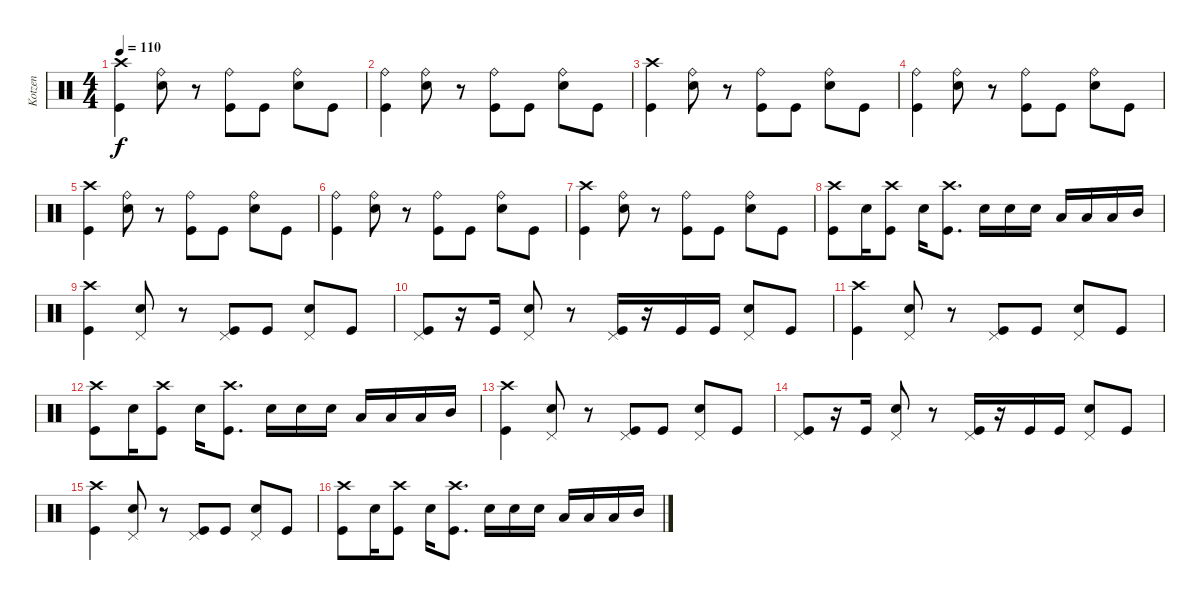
\track ("Kotzen" "Kotzen") {instrument percussion}
\staff {score}
\articulation defaults
\ts (4 4)
\tempo 110
\clef neutral
\ks c
("Crash high (hit)" "Kick (hit)").4{dy f} ("Ride (bell)" "Snare (hit) 2").8 r.8 ("Ride (bell)" "Kick (hit)").8 "Kick (hit)".8 ("Ride (bell)" "Snare (hit) 2").8 "Kick (hit)".8 |
("Ride (bell)" "Kick (hit)").4 ("Ride (bell)" "Snare (hit) 2").8 r.8 ("Ride (bell)" "Kick (hit)").8 "Kick (hit)".8 ("Ride (bell)" "Snare (hit) 2").8 "Kick (hit)".8 |
("Crash high (hit)" "Kick (hit)").4 ("Ride (bell)" "Snare (hit) 2").8 r.8 ("Ride (bell)" "Kick (hit)").8 "Kick (hit)".8 ("Ride (bell)" "Snare (hit) 2").8 "Kick (hit)".8 |
("Ride (bell)" "Kick (hit)").4 ("Ride (bell)" "Snare (hit) 2").8 r.8 ("Ride (bell)" "Kick (hit)").8 "Kick (hit)".8 ("Ride (bell)" "Snare (hit) 2").8 "Kick (hit)".8 |
("Crash high (hit)" "Kick (hit)").4 ("Ride (bell)" "Snare (hit) 2").8 r.8 ("Ride (bell)" "Kick (hit)").8 "Kick (hit)".8 ("Ride (bell)" "Snare (hit) 2").8 "Kick (hit)".8 |
("Ride (bell)" "Kick (hit)").4 ("Ride (bell)" "Snare (hit) 2").8 r.8 ("Ride (bell)" "Kick (hit)").8 "Kick (hit)".8 ("Ride (bell)" "Snare (hit) 2").8 "Kick (hit)".8 |
("Crash high (hit)" "Kick (hit)").4 ("Ride (bell)" "Snare (hit) 2").8 r.8 ("Ride (bell)" "Kick (hit)").8 "Kick (hit)".8 ("Ride (bell)" "Snare (hit) 2").8 "Kick (hit)".8 |
("Crash high (hit)" "Kick (hit)").8 "Snare (hit) 2".16 ("Crash high (hit)" "Kick (hit)").8 "Snare (hit) 2".16 ("Crash high (hit)" "Kick (hit)").8{d} "Snare (hit) 2".16 "Snare (hit) 2".16 "Snare (hit) 2".16 "Low Tom (hit)".16 "Low Tom (hit)".16 "Low Tom (hit)".16 "Mid Tom (hit)".16 |
("Crash high (hit)" "Kick (hit)").4 ("Pedal Hi-Hat (hit)" "Snare (hit) 2").8 r.8 ("Pedal Hi-Hat (hit)" "Kick (hit)").8 "Kick (hit)".8 ("Pedal Hi-Hat (hit)" "Snare (hit) 2").8 "Kick (hit)".8 |
("Pedal Hi-Hat (hit)" "Kick (hit)").8 r.16 "Kick (hit)".16 ("Pedal Hi-Hat (hit)" "Snare (hit) 2").8 r.8 ("Pedal Hi-Hat (hit)" "Kick (hit)").16 r.16 "Kick (hit)".16 "Kick (hit)".16 ("Pedal Hi-Hat (hit)" "Snare (hit) 2").8 "Kick (hit)".8 |
("Crash high (hit)" "Kick (hit)").4 ("Pedal Hi-Hat (hit)" "Snare (hit) 2").8 r.8 ("Pedal Hi-Hat (hit)" "Kick (hit)").8 "Kick (hit)".8 ("Pedal Hi-Hat (hit)" "Snare (hit) 2").8 "Kick (hit)".8 |
("Crash high (hit)" "Kick (hit)").8 "Snare (hit) 2".16 ("Crash high (hit)" "Kick (hit)").8 "Snare (hit) 2".16 ("Crash high (hit)" "Kick (hit)").8{d} "Snare (hit) 2".16 "Snare (hit) 2".16 "Snare (hit) 2".16 "Low Tom (hit)".16 "Low Tom (hit)".16 "Low Tom (hit)".16 "Mid Tom (hit)".16 |
("Crash high (hit)" "Kick (hit)").4 ("Pedal Hi-Hat (hit)" "Snare (hit) 2").8 r.8 ("Pedal Hi-Hat (hit)" "Kick (hit)").8 "Kick (hit)".8 ("Pedal Hi-Hat (hit)" "Snare (hit) 2").8 "Kick (hit)".8 |
("Pedal Hi-Hat (hit)" "Kick (hit)").8 r.16 "Kick (hit)".16 ("Pedal Hi-Hat (hit)" "Snare (hit) 2").8 r.8 ("Pedal Hi-Hat (hit)" "Kick (hit)").16 r.16 "Kick (hit)".16 "Kick (hit)".16 ("Pedal Hi-Hat (hit)" "Snare (hit) 2").8 "Kick (hit)".8 |
("Crash high (hit)" "Kick (hit)").4 ("Pedal Hi-Hat (hit)" "Snare (hit) 2").8 r.8 ("Pedal Hi-Hat (hit)" "Kick (hit)").8 "Kick (hit)".8 ("Pedal Hi-Hat (hit)" "Snare (hit) 2").8 "Kick (hit)".8 |
("Crash high (hit)" "Kick (hit)").8 "Snare (hit) 2".16 ("Crash high (hit)" "Kick (hit)").8 "Snare (hit) 2".16 ("Crash high (hit)" "Kick (hit)").8{d} "Snare (hit) 2".16 "Snare (hit) 2".16 "Snare (hit) 2".16 "Low Tom (hit)".16 "Low Tom (hit)".16 "Low Tom (hit)".16 "Mid Tom (hit)".16
